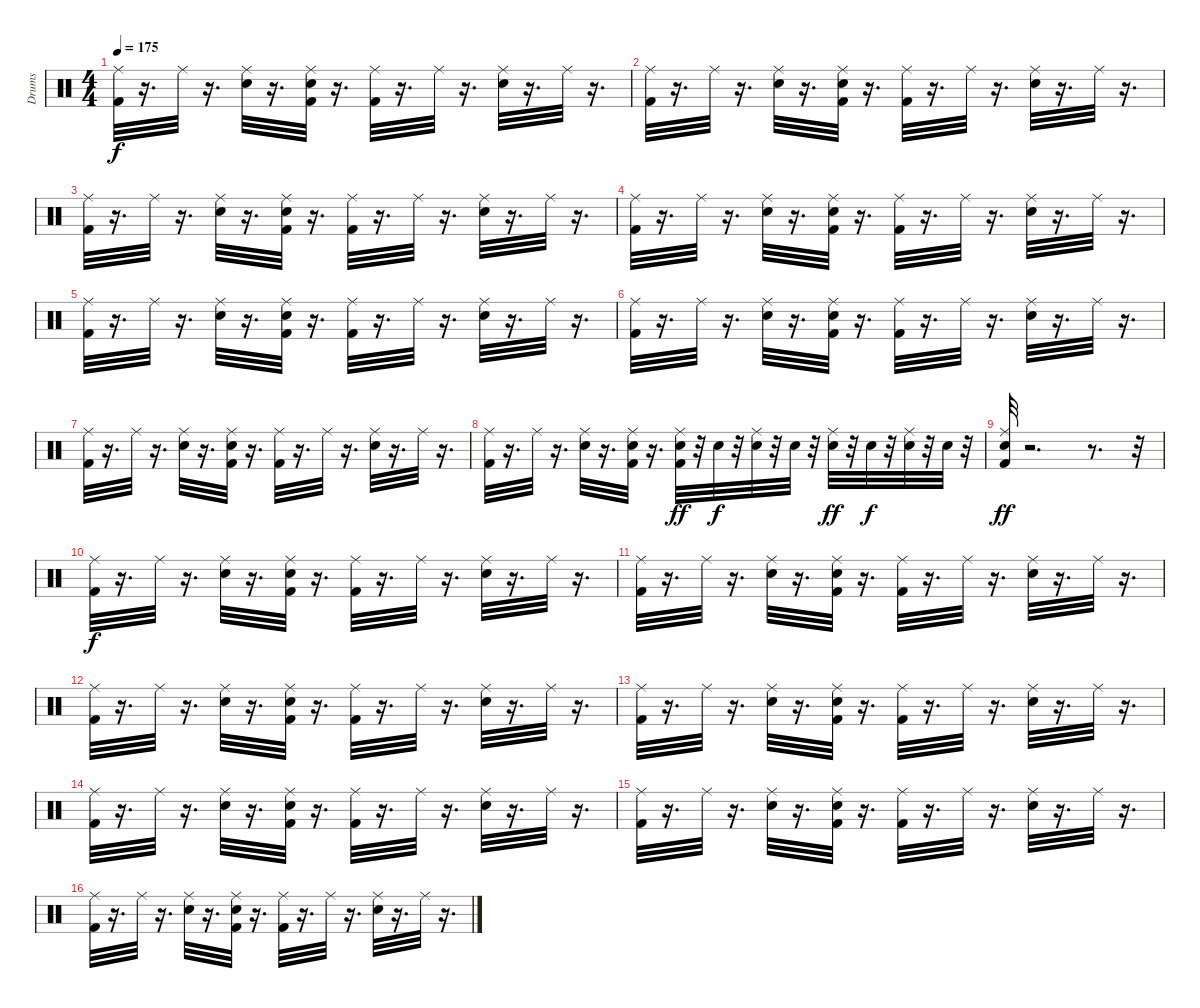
\track ("Drums" "Drums") {instrument percussion}
\staff {score}
\articulation defaults
\ts (4 4)
\tempo 175
\clef neutral
\ks c
("Kick (hit) 2" "Ride (middle)").32{dy f} r.16{d} "Ride (middle)".32 r.16{d} ("Ride (middle)" "Snare (hit) 2").32 r.16{d} ("Snare (hit) 2" "Kick (hit) 2" "Ride (middle)").32 r.16{d} ("Kick (hit) 2" "Ride (middle)").32 r.16{d} "Ride (middle)".32 r.16{d} ("Snare (hit) 2" "Ride (middle)").32 r.16{d} "Ride (middle)".32 r.16{d} |
("Ride (middle)" "Kick (hit) 2").32 r.16{d} "Ride (middle)".32 r.16{d} ("Ride (middle)" "Snare (hit) 2").32 r.16{d} ("Ride (middle)" "Snare (hit) 2" "Kick (hit) 2").32 r.16{d} ("Ride (middle)" "Kick (hit) 2").32 r.16{d} "Ride (middle)".32 r.16{d} ("Ride (middle)" "Snare (hit) 2").32 r.16{d} "Ride (middle)".32 r.16{d} |
("Kick (hit) 2" "Ride (middle)").32 r.16{d} "Ride (middle)".32 r.16{d} ("Snare (hit) 2" "Ride (middle)").32 r.16{d} ("Snare (hit) 2" "Ride (middle)" "Kick (hit) 2").32 r.16{d} ("Ride (middle)" "Kick (hit) 2").32 r.16{d} "Ride (middle)".32 r.16{d} ("Snare (hit) 2" "Ride (middle)").32 r.16{d} "Ride (middle)".32 r.16{d} |
("Kick (hit) 2" "Ride (middle)").32 r.16{d} "Ride (middle)".32 r.16{d} ("Ride (middle)" "Snare (hit) 2").32 r.16{d} ("Kick (hit) 2" "Snare (hit) 2" "Ride (middle)").32 r.16{d} ("Kick (hit) 2" "Ride (middle)").32 r.16{d} "Ride (middle)".32 r.16{d} ("Snare (hit) 2" "Ride (middle)").32 r.16{d} "Ride (middle)".32 r.16{d} |
("Kick (hit) 2" "Ride (middle)").32 r.16{d} "Ride (middle)".32 r.16{d} ("Ride (middle)" "Snare (hit) 2").32 r.16{d} ("Snare (hit) 2" "Kick (hit) 2" "Ride (middle)").32 r.16{d} ("Kick (hit) 2" "Ride (middle)").32 r.16{d} "Ride (middle)".32 r.16{d} ("Snare (hit) 2" "Ride (middle)").32 r.16{d} "Ride (middle)".32 r.16{d} |
("Ride (middle)" "Kick (hit) 2").32 r.16{d} "Ride (middle)".32 r.16{d} ("Ride (middle)" "Snare (hit) 2").32 r.16{d} ("Ride (middle)" "Snare (hit) 2" "Kick (hit) 2").32 r.16{d} ("Ride (middle)" "Kick (hit) 2").32 r.16{d} "Ride (middle)".32 r.16{d} ("Ride (middle)" "Snare (hit) 2").32 r.16{d} "Ride (middle)".32 r.16{d} |
("Kick (hit) 2" "Ride (middle)").32 r.16{d} "Ride (middle)".32 r.16{d} ("Snare (hit) 2" "Ride (middle)").32 r.16{d} ("Snare (hit) 2" "Ride (middle)" "Kick (hit) 2").32 r.16{d} ("Ride (middle)" "Kick (hit) 2").32 r.16{d} "Ride (middle)".32 r.16{d} ("Snare (hit) 2" "Ride (middle)").32 r.16{d} "Ride (middle)".32 r.16{d} |
("Kick (hit) 2" "Ride (middle)").32 r.16{d} "Ride (middle)".32 r.16{d} ("Ride (middle)" "Snare (hit) 2").32 r.16{d} ("Kick (hit) 2" "Snare (hit) 2" "Ride (middle)").32 r.16{d} ("Snare (hit) 2" "Kick (hit) 2" "Ride (middle)").32{dy ff} r.32 "Snare (hit) 2".32{dy f} r.32 ("Snare (hit) 2" "Ride (middle)").32 r.32 "Snare (hit) 2".32 r.32 ("Snare (hit) 2" "Ride (middle)").32{dy ff} r.32 "Snare (hit) 2".32{dy f} r.32 ("Snare (hit) 2" "Ride (middle)").32 r.32 "Snare (hit) 2".32 r.32 |
("Snare (hit) 2" "Kick (hit) 2" "Ride (middle)").32{dy ff} r.2{d} r.8{d} r.32 |
("Ride (middle)" "Kick (hit) 2").32{dy f} r.16{d} "Ride (middle)".32 r.16{d} ("Ride (middle)" "Snare (hit) 2").32 r.16{d} ("Ride (middle)" "Snare (hit) 2" "Kick (hit) 2").32 r.16{d} ("Ride (middle)" "Kick (hit) 2").32 r.16{d} "Ride (middle)".32 r.16{d} ("Ride (middle)" "Snare (hit) 2").32 r.16{d} "Ride (middle)".32 r.16{d} |
("Kick (hit) 2" "Ride (middle)").32 r.16{d} "Ride (middle)".32 r.16{d} ("Snare (hit) 2" "Ride (middle)").32 r.16{d} ("Snare (hit) 2" "Ride (middle)" "Kick (hit) 2").32 r.16{d} ("Ride (middle)" "Kick (hit) 2").32 r.16{d} "Ride (middle)".32 r.16{d} ("Snare (hit) 2" "Ride (middle)").32 r.16{d} "Ride (middle)".32 r.16{d} |
("Kick (hit) 2" "Ride (middle)").32 r.16{d} "Ride (middle)".32 r.16{d} ("Ride (middle)" "Snare (hit) 2").32 r.16{d} ("Kick (hit) 2" "Snare (hit) 2" "Ride (middle)").32 r.16{d} ("Kick (hit) 2" "Ride (middle)").32 r.16{d} "Ride (middle)".32 r.16{d} ("Snare (hit) 2" "Ride (middle)").32 r.16{d} "Ride (middle)".32 r.16{d} |
("Kick (hit) 2" "Ride (middle)").32 r.16{d} "Ride (middle)".32 r.16{d} ("Ride (middle)" "Snare (hit) 2").32 r.16{d} ("Snare (hit) 2" "Kick (hit) 2" "Ride (middle)").32 r.16{d} ("Kick (hit) 2" "Ride (middle)").32 r.16{d} "Ride (middle)".32 r.16{d} ("Snare (hit) 2" "Ride (middle)").32 r.16{d} "Ride (middle)".32 r.16{d} |
("Ride (middle)" "Kick (hit) 2").32 r.16{d} "Ride (middle)".32 r.16{d} ("Ride (middle)" "Snare (hit) 2").32 r.16{d} ("Ride (middle)" "Snare (hit) 2" "Kick (hit) 2").32 r.16{d} ("Ride (middle)" "Kick (hit) 2").32 r.16{d} "Ride (middle)".32 r.16{d} ("Ride (middle)" "Snare (hit) 2").32 r.16{d} "Ride (middle)".32 r.16{d} |
("Kick (hit) 2" "Ride (middle)").32 r.16{d} "Ride (middle)".32 r.16{d} ("Snare (hit) 2" "Ride (middle)").32 r.16{d} ("Snare (hit) 2" "Ride (middle)" "Kick (hit) 2").32 r.16{d} ("Ride (middle)" "Kick (hit) 2").32 r.16{d} "Ride (middle)".32 r.16{d} ("Snare (hit) 2" "Ride (middle)").32 r.16{d} "Ride (middle)".32 r.16{d} |
("Kick (hit) 2" "Ride (middle)").32 r.16{d} "Ride (middle)".32 r.16{d} ("Ride (middle)" "Snare (hit) 2").32 r.16{d} ("Kick (hit) 2" "Snare (hit) 2" "Ride (middle)").32 r.16{d} ("Kick (hit) 2" "Ride (middle)").32 r.16{d} "Ride (middle)".32 r.16{d} ("Snare (hit) 2" "Ride (middle)").32 r.16{d} "Ride (middle)".32 r.16{d}
